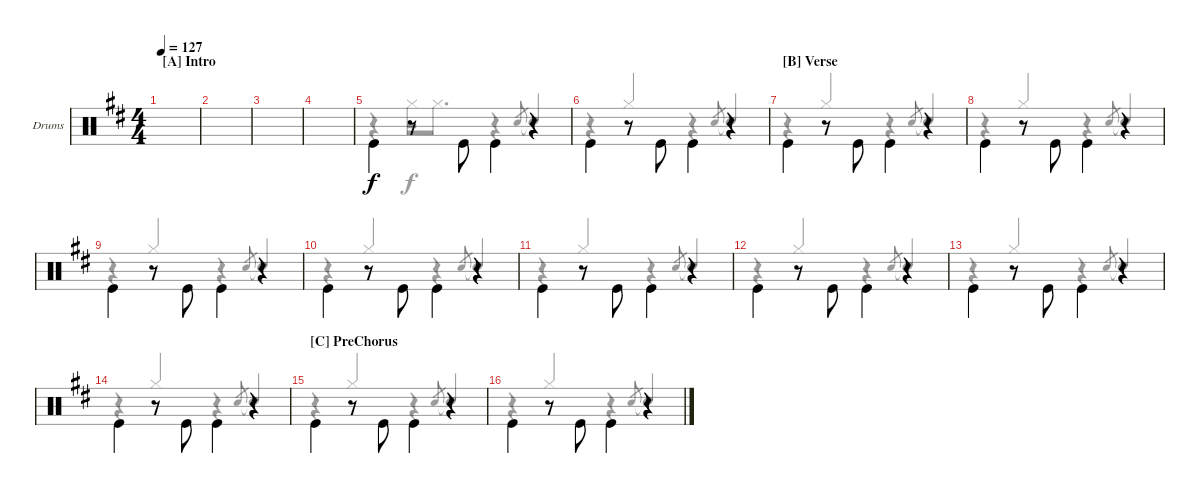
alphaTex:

\bracketExtendMode groupsimilarinstruments
\firstSystemTrackNameOrientation horizontal
\otherSystemsTrackNameOrientation horizontal
\track ("Drum" "Drums") {instrument percussion}
\staff {score}
\articulation defaults
\voice
\ts (4 4)
\beaming (8 2 2 2 2)
\section ("A" "Intro")
\tempo 127
\clef neutral
\scale
0.679775
\ks d
|
\scale
0.320225 |
\scale
0.5 |
\scale
0.5 |
\scale
0.5 "Kick (hit)".4{beam invert} r.8 "Kick (hit)".8{beam invert} "Kick (hit)".4{beam invert} r.4 |
\scale
0.5 "Kick (hit)".4{beam invert} r.8 "Kick (hit)".8{beam invert} "Kick (hit)".4{beam invert} r.4 |
\section ("B" "Verse")
\scale
0.5 "Kick (hit)".4{beam invert} r.8 "Kick (hit)".8{beam invert} "Kick (hit)".4{beam invert} r.4 |
\scale
0.5 "Kick (hit)".4{beam invert} r.8 "Kick (hit)".8{beam invert} "Kick (hit)".4{beam invert} r.4 |
\scale
0.5 "Kick (hit)".4{beam invert} r.8 "Kick (hit)".8{beam invert} "Kick (hit)".4{beam invert} r.4 |
\scale
0.5 "Kick (hit)".4{beam invert} r.8 "Kick (hit)".8{beam invert} "Kick (hit)".4{beam invert} r.4 |
\scale
0.5 "Kick (hit)".4{beam invert} r.8 "Kick (hit)".8{beam invert} "Kick (hit)".4{beam invert} r.4 |
\scale
0.5 "Kick (hit)".4{beam invert} r.8 "Kick (hit)".8{beam invert} "Kick (hit)".4{beam invert} r.4 |
\scale
0.5 "Kick (hit)".4{beam invert} r.8 "Kick (hit)".8{beam invert} "Kick (hit)".4{beam invert} r.4 |
\scale
0.5 "Kick (hit)".4{beam invert} r.8 "Kick (hit)".8{beam invert} "Kick (hit)".4{beam invert} r.4 |
\section ("C" "PreChorus")
\scale
0.5 "Kick (hit)".4{beam invert} r.8 "Kick (hit)".8{beam invert} "Kick (hit)".4{beam invert} r.4 |
\scale
0.5 "Kick (hit)".4{beam invert} r.8 "Kick (hit)".8{beam invert} "Kick (hit)".4{beam invert} r.4
\voice
\clef neutral
\ottava regular
\simile none
\scale
0.679775
\ks d
|
\scale
0.320225 |
\scale
0.5 |
\scale
0.5 |
\scale
0.5 r.4 "Hi-Hat (closed)".16 "Hi-Hat (closed)".8{d} r.4 "Snare (hit) 2".8{gr beam invert} "Snare (hit) 2"{t}.4{beam invert} |
\scale
0.5 r.4 "Hi-Hat (closed)".4{beam invert} r.4 "Snare (hit) 2".8{gr beam invert} "Snare (hit) 2"{t}.4{beam invert} |
\scale
0.5 r.4 "Hi-Hat (closed)".4{beam invert} r.4 "Snare (hit) 2".8{gr beam invert} "Snare (hit) 2"{t}.4{beam invert} |
\scale
0.5 r.4 "Hi-Hat (closed)".4{beam invert} r.4 "Snare (hit) 2".8{gr beam invert} "Snare (hit) 2"{t}.4{beam invert} |
\scale
0.5 r.4 "Hi-Hat (closed)".4{beam invert} r.4 "Snare (hit) 2".8{gr beam invert} "Snare (hit) 2"{t}.4{beam invert} |
\scale
0.5 r.4 "Hi-Hat (closed)".4{beam invert} r.4 "Snare (hit) 2".8{gr beam invert} "Snare (hit) 2"{t}.4{beam invert} |
\scale
0.5 r.4 "Hi-Hat (closed)".4{beam invert} r.4 "Snare (hit) 2".8{gr beam invert} "Snare (hit) 2"{t}.4{beam invert} |
\scale
0.5 r.4 "Hi-Hat (closed)".4{beam invert} r.4 "Snare (hit) 2".8{gr beam invert} "Snare (hit) 2"{t}.4{beam invert} |
\scale
0.5 r.4 "Hi-Hat (closed)".4{beam invert} r.4 "Snare (hit) 2".8{gr beam invert} "Snare (hit) 2"{t}.4{beam invert} |
\scale
0.5 r.4 "Hi-Hat (closed)".4{beam invert} r.4 "Snare (hit) 2".8{gr beam invert} "Snare (hit) 2"{t}.4{beam invert} |
\scale
0.5 r.4 "Hi-Hat (closed)".4{beam invert} r.4 "Snare (hit) 2".8{gr beam invert} "Snare (hit) 2"{t}.4{beam invert} |
\scale
0.5 r.4 "Hi-Hat (closed)".4{beam invert} r.4 "Snare (hit) 2".8{gr beam invert} "Snare (hit) 2"{t}.4{beam invert}
